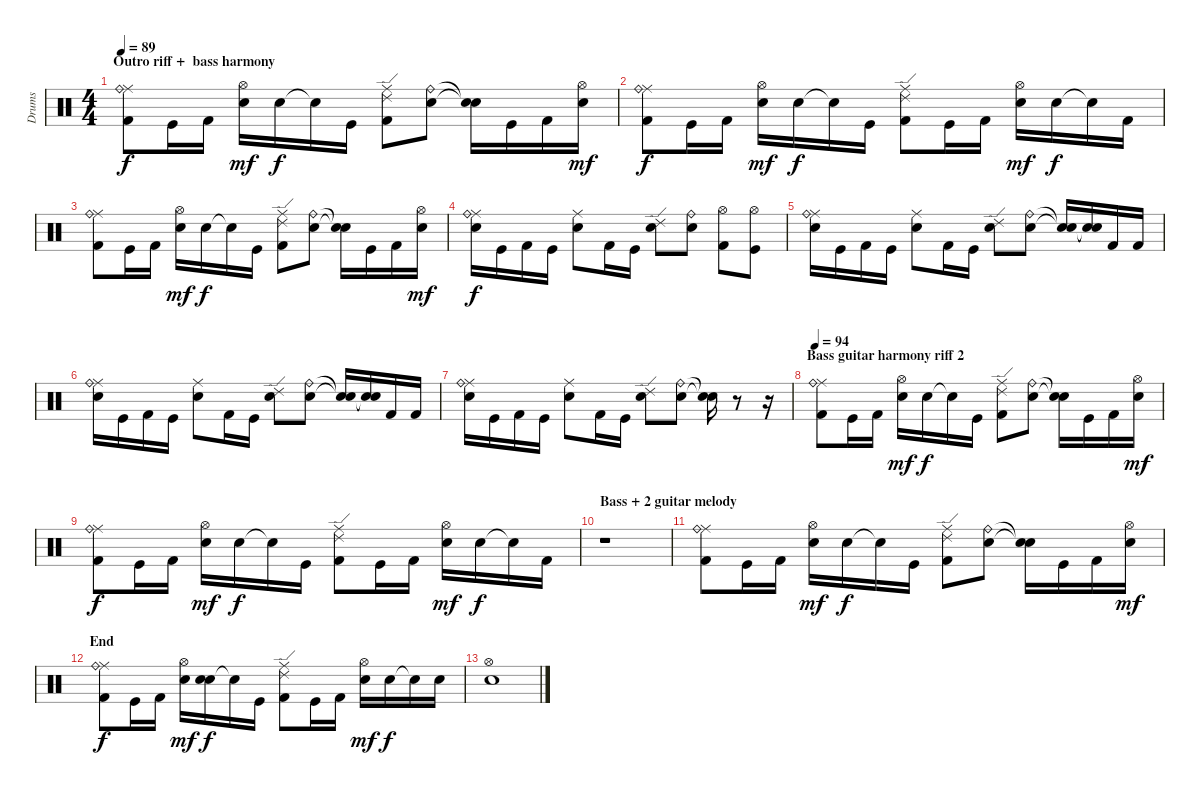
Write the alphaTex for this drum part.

\track ("Drums" "Drums") {instrument percussion}
\staff {score}
\articulation defaults
\ts (4 4)
\section ("" "Outro riff +  bass harmony")
\tempo 89
\clef neutral
\ks c
("Ride (middle)" "Ride (bell)" "Kick (hit) 2").8{dy f} "Kick (hit)".16 "Kick (hit) 2".16 ("Hi-Hat (open)" "Electric Snare (hit)").16{dy mf} "Electric Snare (hit)".16{dy f} "Snare (hit)"{t}.16 "Kick (hit)".16 ("Ride (middle)" "Ride (edge) 2" "Kick (hit) 2").8 ("Ride (bell)" "Electric Snare (hit)").8 ("Snare (hit)"{t} "Snare (hit)"{t}).16 "Kick (hit)".16 "Kick (hit) 2".16 ("Hi-Hat (open)" "Electric Snare (hit)").16{dy mf} |
("Ride (middle)" "Ride (bell)" "Kick (hit) 2").8{dy f} "Kick (hit)".16 "Kick (hit) 2".16 ("Hi-Hat (open)" "Electric Snare (hit)").16{dy mf} "Electric Snare (hit)".16{dy f} "Snare (hit)"{t}.16 "Kick (hit)".16 ("Ride (middle)" "Ride (edge) 2" "Kick (hit) 2").8 "Kick (hit)".16 "Kick (hit) 2".16 ("Hi-Hat (open)" "Electric Snare (hit)").16{dy mf} "Electric Snare (hit)".16{dy f} "Snare (hit)"{t}.16 "Kick (hit) 2".16 |
("Ride (middle)" "Ride (bell)" "Kick (hit) 2").8 "Kick (hit)".16 "Kick (hit) 2".16 ("Hi-Hat (open)" "Electric Snare (hit)").16{dy mf} "Electric Snare (hit)".16{dy f} "Snare (hit)"{t}.16 "Kick (hit)".16 ("Ride (middle)" "Ride (edge) 2" "Kick (hit) 2").8 ("Ride (bell)" "Electric Snare (hit)").8 ("Snare (hit)"{t} "Snare (hit)"{t}).16 "Kick (hit)".16 "Kick (hit) 2".16 ("Hi-Hat (open)" "Electric Snare (hit)").16{dy mf} |
("Ride (middle)" "Ride (bell)" "Snare (hit) 2").16{dy f} "Kick (hit)".16 "Kick (hit) 2".16 "Kick (hit)".16 ("Ride (middle)" "Electric Snare (hit)").8 "Kick (hit) 2".16 "Kick (hit)".16 ("Ride (edge) 2" "Snare (hit) 2").8 ("Ride (bell)" "Electric Snare (hit)").8 ("Hi-Hat (open)" "Kick (hit) 2").8 ("Hi-Hat (open)" "Kick (hit)").8 |
("Ride (middle)" "Ride (bell)" "Snare (hit) 2").16 "Kick (hit)".16 "Kick (hit) 2".16 "Kick (hit)".16 ("Ride (middle)" "Electric Snare (hit)").8 "Kick (hit) 2".16 "Kick (hit)".16 ("Ride (edge) 2" "Snare (hit) 2").8 ("Ride (bell)" "Electric Snare (hit)").8 ("Snare (hit)"{t} "Snare (hit)"{t}).16 ("Snare (hit)"{t} "Snare (hit)"{t}).16 "Kick (hit) 2".16 "Kick (hit) 2".16 |
("Ride (middle)" "Ride (bell)" "Snare (hit) 2").16 "Kick (hit)".16 "Kick (hit) 2".16 "Kick (hit)".16 ("Ride (middle)" "Electric Snare (hit)").8 "Kick (hit) 2".16 "Kick (hit)".16 ("Ride (edge) 2" "Snare (hit) 2").8 ("Ride (bell)" "Electric Snare (hit)").8 ("Snare (hit)"{t} "Snare (hit)"{t}).16 ("Snare (hit)"{t} "Snare (hit)"{t}).16 "Kick (hit) 2".16 "Kick (hit) 2".16 |
("Ride (middle)" "Ride (bell)" "Snare (hit) 2").16 "Kick (hit)".16 "Kick (hit) 2".16 "Kick (hit)".16 ("Ride (middle)" "Electric Snare (hit)").8 "Kick (hit) 2".16 "Kick (hit)".16 ("Ride (edge) 2" "Snare (hit) 2").8 ("Ride (bell)" "Electric Snare (hit)").8 ("Snare (hit)"{t} "Snare (hit)"{t}).16 r.8 r.16 |
\section ("" "Bass guitar harmony riff 2")
\tempo 94
("Ride (middle)" "Ride (bell)" "Kick (hit) 2").8 "Kick (hit)".16 "Kick (hit) 2".16 ("Hi-Hat (open)" "Electric Snare (hit)").16{dy mf} "Electric Snare (hit)".16{dy f} "Snare (hit)"{t}.16 "Kick (hit)".16 ("Ride (middle)" "Ride (edge) 2" "Kick (hit) 2").8 ("Ride (bell)" "Electric Snare (hit)").8 ("Snare (hit)"{t} "Snare (hit)"{t}).16 "Kick (hit)".16 "Kick (hit) 2".16 ("Hi-Hat (open)" "Electric Snare (hit)").16{dy mf} |
("Ride (middle)" "Ride (bell)" "Kick (hit) 2").8{dy f} "Kick (hit)".16 "Kick (hit) 2".16 ("Hi-Hat (open)" "Electric Snare (hit)").16{dy mf} "Electric Snare (hit)".16{dy f} "Snare (hit)"{t}.16 "Kick (hit)".16 ("Ride (middle)" "Ride (edge) 2" "Kick (hit) 2").8 "Kick (hit)".16 "Kick (hit) 2".16 ("Hi-Hat (open)" "Electric Snare (hit)").16{dy mf} "Electric Snare (hit)".16{dy f} "Snare (hit)"{t}.16 "Kick (hit) 2".16 |
\section ("" "Bass + 2 guitar melody")
r.1 |
("Ride (middle)" "Ride (bell)" "Kick (hit) 2").8 "Kick (hit)".16 "Kick (hit) 2".16 ("Hi-Hat (open)" "Electric Snare (hit)").16{dy mf} "Electric Snare (hit)".16{dy f} "Snare (hit)"{t}.16 "Kick (hit)".16 ("Ride (middle)" "Ride (edge) 2" "Kick (hit) 2").8 ("Ride (bell)" "Electric Snare (hit)").8 ("Snare (hit)"{t} "Snare (hit)"{t}).16 "Kick (hit)".16 "Kick (hit) 2".16 ("Hi-Hat (open)" "Electric Snare (hit)").16{dy mf} |
\section ("" "End")
("Ride (middle)" "Ride (bell)" "Kick (hit) 2").8{dy f} "Kick (hit)".16 "Kick (hit) 2".16 ("Hi-Hat (open)" "Electric Snare (hit)").16{dy mf} ("Electric Snare (hit)" "Electric Snare (hit)").16{dy f} "Snare (hit)"{t}.16 "Kick (hit)".16 ("Ride (middle)" "Ride (edge) 2" "Kick (hit) 2").8 "Kick (hit)".16 "Kick (hit) 2".16 ("Hi-Hat (open)" "Electric Snare (hit)").16{dy mf} "Electric Snare (hit)".16{dy f} "Snare (hit)"{t}.16 "Electric Snare (hit)".16 |
("Hi-Hat (open)" "Snare (hit) 2").1
